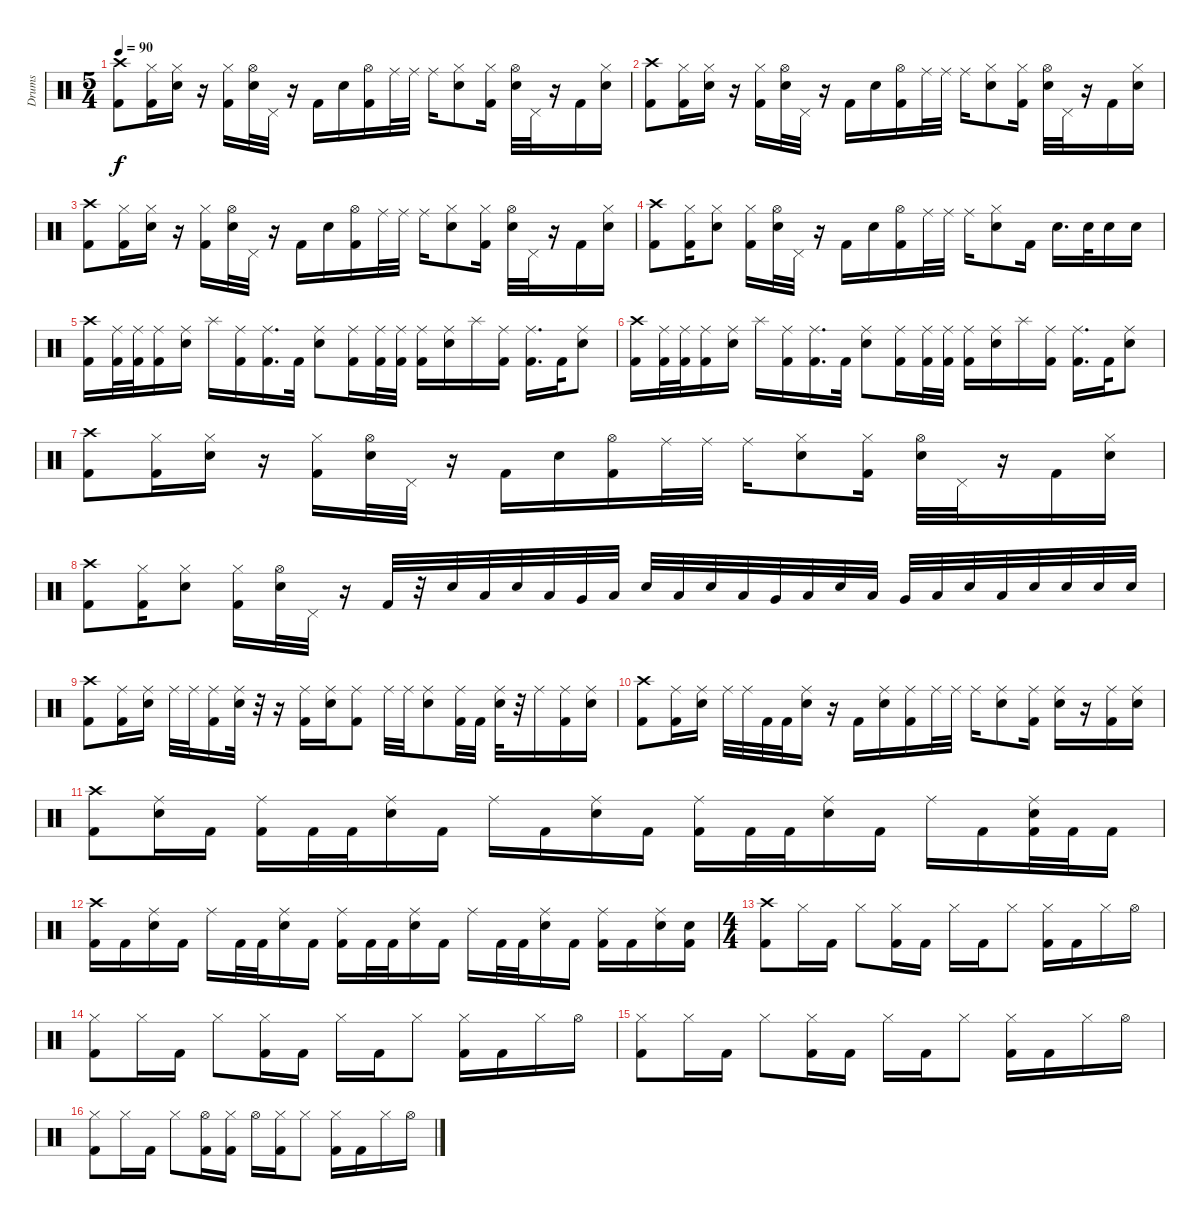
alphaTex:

\track ("Drums" "Drums") {instrument percussion}
\staff {score}
\articulation defaults
\ts (5 4)
\tempo 90
\clef neutral
\ks c
("Kick (hit) 2" "Crash high (hit)").8{dy f} ("Kick (hit) 2" "Hi-Hat (closed)").16 ("Snare (hit) 2" "Hi-Hat (closed)").16 r.16 ("Kick (hit) 2" "Hi-Hat (closed)").16 ("Snare (hit) 2" "Hi-Hat (open)").32 "Pedal Hi-Hat (hit)".32 r.16 "Kick (hit) 2".16 "Snare (hit) 2".16 ("Kick (hit) 2" "Hi-Hat (open)").16 "Ride (middle)".32 "Ride (middle)".32 "Ride (middle)".16 ("Snare (hit) 2" "Hi-Hat (closed)").8 ("Kick (hit) 2" "Hi-Hat (closed)").16 ("Snare (hit) 2" "Hi-Hat (open)").32 "Pedal Hi-Hat (hit)".32 r.16 "Kick (hit) 2".16 ("Snare (hit) 2" "Hi-Hat (closed)").16 |
("Kick (hit) 2" "Crash high (hit)").8 ("Kick (hit) 2" "Hi-Hat (closed)").16 ("Snare (hit) 2" "Hi-Hat (closed)").16 r.16 ("Kick (hit) 2" "Hi-Hat (closed)").16 ("Snare (hit) 2" "Hi-Hat (open)").32 "Pedal Hi-Hat (hit)".32 r.16 "Kick (hit) 2".16 "Snare (hit) 2".16 ("Kick (hit) 2" "Hi-Hat (open)").16 "Ride (middle)".32 "Ride (middle)".32 "Ride (middle)".16 ("Snare (hit) 2" "Hi-Hat (closed)").8 ("Kick (hit) 2" "Hi-Hat (closed)").16 ("Snare (hit) 2" "Hi-Hat (open)").32 "Pedal Hi-Hat (hit)".32 r.16 "Kick (hit) 2".16 ("Snare (hit) 2" "Hi-Hat (closed)").16 |
("Kick (hit) 2" "Crash high (hit)").8 ("Kick (hit) 2" "Hi-Hat (closed)").16 ("Snare (hit) 2" "Hi-Hat (closed)").16 r.16 ("Kick (hit) 2" "Hi-Hat (closed)").16 ("Snare (hit) 2" "Hi-Hat (open)").32 "Pedal Hi-Hat (hit)".32 r.16 "Kick (hit) 2".16 "Snare (hit) 2".16 ("Kick (hit) 2" "Hi-Hat (open)").16 "Ride (middle)".32 "Ride (middle)".32 "Ride (middle)".16 ("Snare (hit) 2" "Hi-Hat (closed)").8 ("Kick (hit) 2" "Hi-Hat (closed)").16 ("Snare (hit) 2" "Hi-Hat (open)").32 "Pedal Hi-Hat (hit)".32 r.16 "Kick (hit) 2".16 ("Snare (hit) 2" "Hi-Hat (closed)").16 |
("Kick (hit) 2" "Crash high (hit)").8 ("Kick (hit) 2" "Hi-Hat (closed)").16 ("Snare (hit) 2" "Hi-Hat (closed)").8 ("Kick (hit) 2" "Hi-Hat (closed)").16 ("Snare (hit) 2" "Hi-Hat (open)").32 "Pedal Hi-Hat (hit)".32 r.16 "Kick (hit) 2".16 "Snare (hit) 2".16 ("Kick (hit) 2" "Hi-Hat (open)").16 "Ride (middle)".32 "Ride (middle)".32 "Ride (middle)".16 ("Snare (hit) 2" "Hi-Hat (closed)").8 "Kick (hit) 2".16 "Snare (hit) 2".16{d} "Snare (hit) 2".32 "Snare (hit) 2".16 "Snare (hit) 2".16 |
("Kick (hit) 2" "Crash high (hit)").16 ("Kick (hit) 2" "Ride (middle)").32 ("Kick (hit) 2" "Ride (middle)").32 ("Kick (hit) 2" "Ride (middle)").16 ("Snare (hit) 2" "Ride (middle)").16 "Splash (hit)".16 ("Kick (hit) 2" "Ride (middle)").16 ("Kick (hit) 2" "Ride (middle)").16{d} "Kick (hit) 2".32 ("Snare (hit) 2" "Ride (middle)").8 ("Kick (hit) 2" "Ride (middle)").16 ("Kick (hit) 2" "Ride (middle)").32 ("Kick (hit) 2" "Ride (middle)").32 ("Kick (hit) 2" "Ride (middle)").16 ("Snare (hit) 2" "Ride (middle)").16 "Splash (hit)".16 ("Kick (hit) 2" "Ride (middle)").16 ("Kick (hit) 2" "Ride (middle)").16{d} "Kick (hit) 2".32 ("Snare (hit) 2" "Ride (middle)").8 |
("Kick (hit) 2" "Crash high (hit)").16 ("Kick (hit) 2" "Ride (middle)").32 ("Kick (hit) 2" "Ride (middle)").32 ("Kick (hit) 2" "Ride (middle)").16 ("Snare (hit) 2" "Ride (middle)").16 "Splash (hit)".16 ("Kick (hit) 2" "Ride (middle)").16 ("Kick (hit) 2" "Ride (middle)").16{d} "Kick (hit) 2".32 ("Snare (hit) 2" "Ride (middle)").8 ("Kick (hit) 2" "Ride (middle)").16 ("Kick (hit) 2" "Ride (middle)").32 ("Kick (hit) 2" "Ride (middle)").32 ("Kick (hit) 2" "Ride (middle)").16 ("Snare (hit) 2" "Ride (middle)").16 "Splash (hit)".16 ("Kick (hit) 2" "Ride (middle)").16 ("Kick (hit) 2" "Ride (middle)").16{d} "Kick (hit) 2".32 ("Snare (hit) 2" "Ride (middle)").8 |
("Kick (hit) 2" "Crash high (hit)").8 ("Kick (hit) 2" "Hi-Hat (closed)").16 ("Snare (hit) 2" "Hi-Hat (closed)").16 r.16 ("Kick (hit) 2" "Hi-Hat (closed)").16 ("Snare (hit) 2" "Hi-Hat (open)").32 "Pedal Hi-Hat (hit)".32 r.16 "Kick (hit) 2".16 "Snare (hit) 2".16 ("Kick (hit) 2" "Hi-Hat (open)").16 "Ride (middle)".32 "Ride (middle)".32 "Ride (middle)".16 ("Snare (hit) 2" "Hi-Hat (closed)").8 ("Kick (hit) 2" "Hi-Hat (closed)").16 ("Snare (hit) 2" "Hi-Hat (open)").32 "Pedal Hi-Hat (hit)".32 r.16 "Kick (hit) 2".16 ("Snare (hit) 2" "Hi-Hat (closed)").16 |
("Kick (hit) 2" "Crash high (hit)").8 ("Kick (hit) 2" "Hi-Hat (closed)").16 ("Snare (hit) 2" "Hi-Hat (closed)").8 ("Kick (hit) 2" "Hi-Hat (closed)").16 ("Snare (hit) 2" "Hi-Hat (open)").32 "Pedal Hi-Hat (hit)".32 r.16 "Kick (hit) 2".32 r.32 "Snare (hit) 2".32 "Low Tom (hit)".32 "Snare (hit) 2".32 "Low Tom (hit)".32 "Very Low Tom (hit)".32 "Low Floor Tom (hit)".32 "Snare (hit) 2".32 "Low Tom (hit)".32 "Snare (hit) 2".32 "Low Tom (hit)".32 "Very Low Tom (hit)".32 "Low Floor Tom (hit)".32 "Snare (hit) 2".32 "Low Tom (hit)".32 "Very Low Tom (hit)".32 "Low Floor Tom (hit)".32 "Snare (hit) 2".32 "Low Tom (hit)".32 "Snare (hit) 2".32 "Snare (hit) 2".32 "Snare (hit) 2".32 "Snare (hit) 2".32 |
("Kick (hit) 2" "Crash high (hit)").8 ("Kick (hit) 2" "Ride (middle)").16 ("Snare (hit) 2" "Ride (middle)").16 "Ride (middle)".32 "Ride (middle)".32 ("Kick (hit) 2" "Ride (middle)").16 ("Snare (hit) 2" "Ride (middle)").32 r.32 r.16 ("Kick (hit) 2" "Ride (middle)").16 ("Snare (hit) 2" "Ride (middle)").16 ("Kick (hit) 2" "Ride (middle)").8 "Ride (middle)".32 "Ride (middle)".32 ("Snare (hit) 2" "Ride (middle)").8 ("Kick (hit) 2" "Ride (middle)").32 "Kick (hit) 2".32 ("Snare (hit) 2" "Ride (middle)").32 r.32 "Ride (middle)".16 ("Kick (hit) 2" "Ride (middle)").16 ("Snare (hit) 2" "Ride (middle)").16 |
("Kick (hit) 2" "Crash high (hit)").8 ("Kick (hit) 2" "Ride (middle)").16 ("Snare (hit) 2" "Ride (middle)").16 "Ride (middle)".32 "Ride (middle)".32 "Kick (hit) 2".32 "Kick (hit) 2".32 ("Snare (hit) 2" "Ride (middle)").16 r.16 "Kick (hit) 2".16 ("Snare (hit) 2" "Ride (middle)").16 ("Kick (hit) 2" "Ride (middle)").16 "Ride (middle)".32 "Ride (middle)".32 "Ride (middle)".16 ("Snare (hit) 2" "Ride (middle)").8 ("Kick (hit) 2" "Ride (middle)").16 ("Snare (hit) 2" "Ride (middle)").16 r.16 ("Kick (hit) 2" "Ride (middle)").16 ("Snare (hit) 2" "Ride (middle)").16 |
("Kick (hit) 2" "Crash high (hit)").8 ("Snare (hit) 2" "Ride (middle)").16 "Kick (hit) 2".16 ("Kick (hit) 2" "Ride (middle)").16 "Kick (hit) 2".32 "Kick (hit) 2".32 ("Snare (hit) 2" "Ride (middle)").16 "Kick (hit) 2".16 "Ride (middle)".16 "Kick (hit) 2".16 ("Snare (hit) 2" "Ride (middle)").16 "Kick (hit) 2".16 ("Kick (hit) 2" "Ride (middle)").16 "Kick (hit) 2".32 "Kick (hit) 2".32 ("Snare (hit) 2" "Ride (middle)").16 "Kick (hit) 2".16 "Ride (middle)".16 "Kick (hit) 2".16 ("Kick (hit) 2" "Snare (hit) 2" "Ride (middle)").32 "Kick (hit) 2".32 "Kick (hit) 2".16 |
("Kick (hit) 2" "Crash high (hit)").16 "Kick (hit) 2".16 ("Snare (hit) 2" "Ride (middle)").16 "Kick (hit) 2".16 "Ride (middle)".16 "Kick (hit) 2".32 "Kick (hit) 2".32 ("Snare (hit) 2" "Ride (middle)").16 "Kick (hit) 2".16 ("Kick (hit) 2" "Ride (middle)").16 "Kick (hit) 2".32 "Kick (hit) 2".32 ("Snare (hit) 2" "Ride (middle)").16 "Kick (hit) 2".16 "Ride (middle)".16 "Kick (hit) 2".32 "Kick (hit) 2".32 ("Snare (hit) 2" "Ride (middle)").16 "Kick (hit) 2".16 ("Kick (hit) 2" "Ride (middle)").16 "Kick (hit) 2".16 ("Snare (hit) 2" "Ride (middle)").16 ("Kick (hit) 2" "Snare (hit) 2").16 |
\ts (4 4)
("Kick (hit) 2" "Crash high (hit)").8 "Hi-Hat (closed)".16 "Kick (hit) 2".16 "Hi-Hat (closed)".8 ("Kick (hit) 2" "Hi-Hat (closed)").16 "Kick (hit) 2".16 "Hi-Hat (closed)".16 "Kick (hit) 2".16 "Hi-Hat (closed)".8 ("Kick (hit) 2" "Hi-Hat (closed)").16 "Kick (hit) 2".16 "Hi-Hat (closed)".16 "Hi-Hat (open)".16 |
("Kick (hit) 2" "Hi-Hat (closed)").8 "Hi-Hat (closed)".16 "Kick (hit) 2".16 "Hi-Hat (closed)".8 ("Kick (hit) 2" "Hi-Hat (closed)").16 "Kick (hit) 2".16 "Hi-Hat (closed)".16 "Kick (hit) 2".16 "Hi-Hat (closed)".8 ("Kick (hit) 2" "Hi-Hat (closed)").16 "Kick (hit) 2".16 "Hi-Hat (closed)".16 "Hi-Hat (open)".16 |
("Kick (hit) 2" "Hi-Hat (closed)").8 "Hi-Hat (closed)".16 "Kick (hit) 2".16 "Hi-Hat (closed)".8 ("Kick (hit) 2" "Hi-Hat (closed)").16 "Kick (hit) 2".16 "Hi-Hat (closed)".16 "Kick (hit) 2".16 "Hi-Hat (closed)".8 ("Kick (hit) 2" "Hi-Hat (closed)").16 "Kick (hit) 2".16 "Hi-Hat (closed)".16 "Hi-Hat (open)".16 |
("Kick (hit) 2" "Hi-Hat (closed)").8 "Hi-Hat (closed)".16 "Kick (hit) 2".16 "Hi-Hat (closed)".8 ("Kick (hit) 2" "Hi-Hat (open)").16 ("Kick (hit) 2" "Hi-Hat (closed)").16 "Hi-Hat (open)".16 ("Kick (hit) 2" "Hi-Hat (closed)").16 "Hi-Hat (closed)".8 ("Kick (hit) 2" "Hi-Hat (closed)").16 "Kick (hit) 2".16 "Hi-Hat (closed)".16 "Hi-Hat (open)".16
